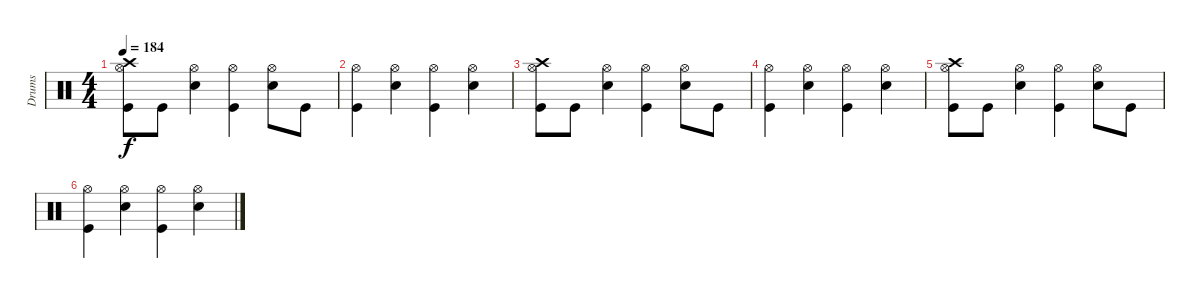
\track ("Drums" "Drums") {instrument percussion}
\staff {score}
\articulation defaults
\ts (4 4)
\tempo 184
\clef neutral
\ks c
("Crash high (hit)" "Hi-Hat (open)" "Kick (hit)").8{dy f} "Kick (hit)".8 ("Hi-Hat (open)" "Electric Snare (hit)").4 ("Hi-Hat (open)" "Kick (hit)").4 ("Hi-Hat (open)" "Electric Snare (hit)").8 "Kick (hit)".8 |
("Hi-Hat (open)" "Kick (hit)").4 ("Hi-Hat (open)" "Electric Snare (hit)").4 ("Hi-Hat (open)" "Kick (hit)").4 ("Hi-Hat (open)" "Electric Snare (hit)").4 |
("Crash high (hit)" "Hi-Hat (open)" "Kick (hit)").8 "Kick (hit)".8 ("Hi-Hat (open)" "Electric Snare (hit)").4 ("Hi-Hat (open)" "Kick (hit)").4 ("Hi-Hat (open)" "Electric Snare (hit)").8 "Kick (hit)".8 |
("Hi-Hat (open)" "Kick (hit)").4 ("Hi-Hat (open)" "Electric Snare (hit)").4 ("Hi-Hat (open)" "Kick (hit)").4 ("Hi-Hat (open)" "Electric Snare (hit)").4 |
("Crash high (hit)" "Hi-Hat (open)" "Kick (hit)").8 "Kick (hit)".8 ("Hi-Hat (open)" "Electric Snare (hit)").4 ("Hi-Hat (open)" "Kick (hit)").4 ("Hi-Hat (open)" "Electric Snare (hit)").8 "Kick (hit)".8 |
("Hi-Hat (open)" "Kick (hit)").4 ("Hi-Hat (open)" "Electric Snare (hit)").4 ("Hi-Hat (open)" "Kick (hit)").4 ("Hi-Hat (open)" "Electric Snare (hit)").4
